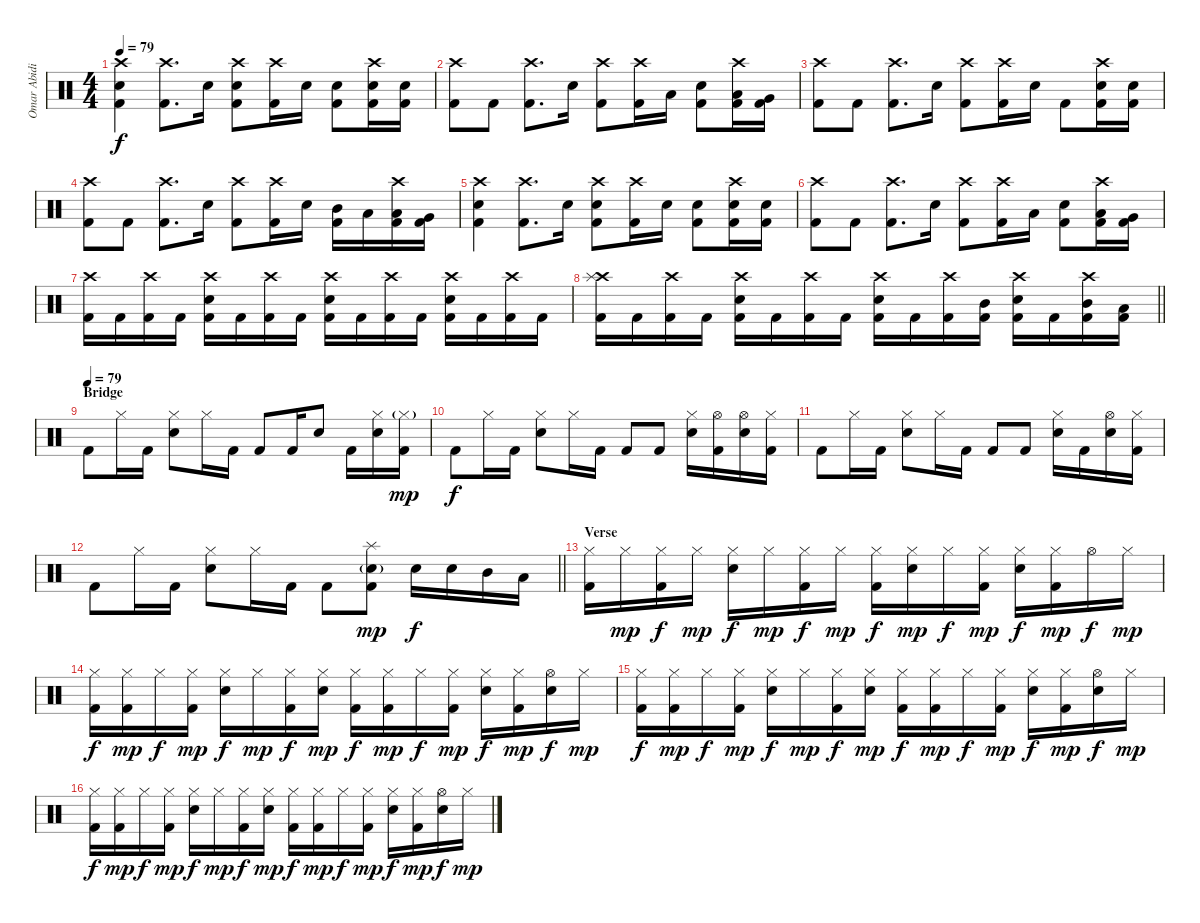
\track ("Omar Abidi" "Omar Abidi") {instrument percussion}
\staff {score}
\articulation defaults
\ts (4 4)
\tempo 79
\clef neutral
\ks c
("Crash high (hit)" "Electric Snare (hit)" "Kick (hit) 2").4{dy f} ("Crash high (hit)" "Kick (hit) 2").8{d} "Electric Snare (hit)".16 ("Crash high (hit)" "Electric Snare (hit)" "Kick (hit) 2").8 ("Crash high (hit)" "Kick (hit) 2").16 "Electric Snare (hit)".16 ("Electric Snare (hit)" "Kick (hit) 2").8 ("Crash high (hit)" "Electric Snare (hit)" "Kick (hit) 2").16 ("Electric Snare (hit)" "Kick (hit) 2").16 |
("Crash high (hit)" "Kick (hit) 2").8 "Kick (hit) 2".8 ("Crash high (hit)" "Kick (hit) 2").8{d} "Electric Snare (hit)".16 ("Crash high (hit)" "Kick (hit) 2").8 ("Crash high (hit)" "Kick (hit) 2").16 "Low Tom (hit)".16 ("Electric Snare (hit)" "Kick (hit) 2").8 ("Crash high (hit)" "Low Tom (hit)" "Kick (hit) 2").16 ("Very Low Tom (hit)" "Kick (hit) 2").16 |
("Crash high (hit)" "Kick (hit) 2").8 "Kick (hit) 2".8 ("Crash high (hit)" "Kick (hit) 2").8{d} "Electric Snare (hit)".16 ("Crash high (hit)" "Kick (hit) 2").8 ("Crash high (hit)" "Kick (hit) 2").16 "Electric Snare (hit)".16 "Kick (hit) 2".8 ("Crash high (hit)" "Electric Snare (hit)" "Kick (hit) 2").16 ("Electric Snare (hit)" "Kick (hit) 2").16 |
("Crash high (hit)" "Kick (hit) 2").8 "Kick (hit) 2".8 ("Crash high (hit)" "Kick (hit) 2").8{d} "Electric Snare (hit)".16 ("Crash high (hit)" "Kick (hit) 2").8 ("Crash high (hit)" "Kick (hit) 2").16 "Electric Snare (hit)".16 ("Mid Tom (hit)" "Kick (hit) 2").16 "Low Tom (hit)".16 ("Crash high (hit)" "Low Tom (hit)" "Kick (hit) 2").16 ("Very Low Tom (hit)" "Kick (hit) 2").16 |
("Crash high (hit)" "Electric Snare (hit)" "Kick (hit) 2").4 ("Crash high (hit)" "Kick (hit) 2").8{d} "Electric Snare (hit)".16 ("Crash high (hit)" "Electric Snare (hit)" "Kick (hit) 2").8 ("Crash high (hit)" "Kick (hit) 2").16 "Electric Snare (hit)".16 ("Electric Snare (hit)" "Kick (hit) 2").8 ("Crash high (hit)" "Electric Snare (hit)" "Kick (hit) 2").16 ("Electric Snare (hit)" "Kick (hit) 2").16 |
("Crash high (hit)" "Kick (hit) 2").8 "Kick (hit) 2".8 ("Crash high (hit)" "Kick (hit) 2").8{d} "Electric Snare (hit)".16 ("Crash high (hit)" "Kick (hit) 2").8 ("Crash high (hit)" "Kick (hit) 2").16 "Low Tom (hit)".16 ("Electric Snare (hit)" "Kick (hit) 2").8 ("Crash high (hit)" "Low Tom (hit)" "Kick (hit) 2").16 ("Very Low Tom (hit)" "Kick (hit) 2").16 |
("Crash high (hit)" "Kick (hit) 2").16 "Kick (hit) 2".16 ("Crash high (hit)" "Kick (hit) 2").16 "Kick (hit) 2".16 ("Crash high (hit)" "Electric Snare (hit)" "Kick (hit) 2").16 "Kick (hit) 2".16 ("Crash high (hit)" "Kick (hit) 2").16 "Kick (hit) 2".16 ("Crash high (hit)" "Electric Snare (hit)" "Kick (hit) 2").16 "Kick (hit) 2".16 ("Crash high (hit)" "Kick (hit) 2").16 "Kick (hit) 2".16 ("Crash high (hit)" "Electric Snare (hit)" "Kick (hit) 2").16 "Kick (hit) 2".16 ("Crash high (hit)" "Kick (hit) 2").16 "Kick (hit) 2".16 |
\barLineRight lightlight
("Crash high (hit)" "Splash (hit)" "Kick (hit) 2").16 "Kick (hit) 2".16 ("Crash high (hit)" "Kick (hit) 2").16 "Kick (hit) 2".16 ("Crash high (hit)" "Electric Snare (hit)" "Kick (hit) 2").16 "Kick (hit) 2".16 ("Crash high (hit)" "Kick (hit) 2").16 "Kick (hit) 2".16 ("Crash high (hit)" "Electric Snare (hit)" "Kick (hit) 2").16 "Kick (hit) 2".16 ("Crash high (hit)" "Kick (hit) 2").16 ("Mid Tom (hit)" "Kick (hit) 2").16 ("Crash high (hit)" "Electric Snare (hit)" "Kick (hit) 2").16 "Kick (hit) 2".16 ("Crash high (hit)" "Mid Tom (hit)" "Kick (hit) 2").16 ("Low Tom (hit)" "Kick (hit) 2").16 |
\section ("" "Bridge")
\tempo (79)
"Kick (hit) 2".8 "Hi-Hat (closed)".16 "Kick (hit) 2".16 ("Hi-Hat (closed)" "Electric Snare (hit)").8 "Hi-Hat (closed)".16 "Kick (hit) 2".16 "Kick (hit) 2".8 "Kick (hit) 2".16 "Electric Snare (hit)".8 "Kick (hit) 2".16 ("Hi-Hat (closed)" "Electric Snare (hit)").16 ("Hi-Hat (closed)"{g} "Kick (hit) 2").16{dy mp} |
"Kick (hit) 2".8{dy f} "Hi-Hat (closed)".16 "Kick (hit) 2".16 ("Hi-Hat (closed)" "Electric Snare (hit)").8 "Hi-Hat (closed)".16 "Kick (hit) 2".16 "Kick (hit) 2".8 "Kick (hit) 2".8 ("Hi-Hat (closed)" "Electric Snare (hit)").16 ("Hi-Hat (open)" "Kick (hit) 2").16 ("Hi-Hat (open)" "Electric Snare (hit)").16 ("Hi-Hat (closed)" "Kick (hit) 2").16 |
"Kick (hit) 2".8 "Hi-Hat (closed)".16 "Kick (hit) 2".16 ("Hi-Hat (closed)" "Electric Snare (hit)").8 "Hi-Hat (closed)".16 "Kick (hit) 2".16 "Kick (hit) 2".8 "Kick (hit) 2".8 ("Hi-Hat (closed)" "Electric Snare (hit)").16 "Kick (hit) 2".16 ("Hi-Hat (open)" "Electric Snare (hit)").16 ("Hi-Hat (closed)" "Kick (hit) 2").16 |
\barLineRight lightlight "Kick (hit) 2".8 "Hi-Hat (closed)".16 "Kick (hit) 2".16
("Hi-Hat (closed)" "Electric Snare (hit)").8 "Hi-Hat (closed)".16 "Kick (hit) 2".16 "Kick (hit) 2".8 ("Splash (hit)" "Electric Snare (hit)"{g} "Kick (hit) 2").8{dy mp} "Electric Snare (hit)".16{dy f} "Electric Snare (hit)".16 "Mid Tom (hit)".16 "Low Tom (hit)".16 |
\section ("" "Verse")
("Hi-Hat (closed)" "Kick (hit) 2").16 "Hi-Hat (closed)".16{dy mp} ("Hi-Hat (closed)" "Kick (hit) 2").16{dy f} "Hi-Hat (closed)".16{dy mp} ("Hi-Hat (closed)" "Electric Snare (hit)").16{dy f} "Hi-Hat (closed)".16{dy mp} ("Hi-Hat (closed)" "Kick (hit) 2").16{dy f} "Hi-Hat (closed)".16{dy mp} ("Hi-Hat (closed)" "Kick (hit) 2").16{dy f} ("Hi-Hat (closed)" "Electric Snare (hit)").16{dy mp} "Hi-Hat (closed)".16{dy f} ("Hi-Hat (closed)" "Kick (hit) 2").16{dy mp} ("Hi-Hat (closed)" "Electric Snare (hit)").16{dy f} ("Hi-Hat (closed)" "Kick (hit) 2").16{dy mp} "Hi-Hat (open)".16{dy f} "Hi-Hat (closed)".16{dy mp} |
("Hi-Hat (closed)" "Kick (hit) 2").16{dy f} ("Hi-Hat (closed)" "Kick (hit) 2").16{dy mp} "Hi-Hat (closed)".16{dy f} ("Hi-Hat (closed)" "Kick (hit) 2").16{dy mp} ("Hi-Hat (closed)" "Electric Snare (hit)").16{dy f} "Hi-Hat (closed)".16{dy mp} ("Hi-Hat (closed)" "Kick (hit) 2").16{dy f} ("Hi-Hat (closed)" "Electric Snare (hit)").16{dy mp} ("Hi-Hat (closed)" "Kick (hit) 2").16{dy f} ("Hi-Hat (closed)" "Kick (hit) 2").16{dy mp} "Hi-Hat (closed)".16{dy f} ("Hi-Hat (closed)" "Kick (hit) 2").16{dy mp} ("Hi-Hat (closed)" "Electric Snare (hit)").16{dy f} ("Hi-Hat (closed)" "Kick (hit) 2").16{dy mp} ("Hi-Hat (open)" "Electric Snare (hit)").16{dy f} "Hi-Hat (closed)".16{dy mp} |
("Hi-Hat (closed)" "Kick (hit) 2").16{dy f} ("Hi-Hat (closed)" "Kick (hit) 2").16{dy mp} "Hi-Hat (closed)".16{dy f} ("Hi-Hat (closed)" "Kick (hit) 2").16{dy mp} ("Hi-Hat (closed)" "Electric Snare (hit)").16{dy f} "Hi-Hat (closed)".16{dy mp} ("Hi-Hat (closed)" "Kick (hit) 2").16{dy f} ("Hi-Hat (closed)" "Electric Snare (hit)").16{dy mp} ("Hi-Hat (closed)" "Kick (hit) 2").16{dy f} ("Hi-Hat (closed)" "Kick (hit) 2").16{dy mp} "Hi-Hat (closed)".16{dy f} ("Hi-Hat (closed)" "Kick (hit) 2").16{dy mp} ("Hi-Hat (closed)" "Electric Snare (hit)").16{dy f} ("Hi-Hat (closed)" "Kick (hit) 2").16{dy mp} ("Hi-Hat (open)" "Electric Snare (hit)").16{dy f} "Hi-Hat (closed)".16{dy mp} |
("Hi-Hat (closed)" "Kick (hit) 2").16{dy f} ("Hi-Hat (closed)" "Kick (hit) 2").16{dy mp} "Hi-Hat (closed)".16{dy f} ("Hi-Hat (closed)" "Kick (hit) 2").16{dy mp} ("Hi-Hat (closed)" "Electric Snare (hit)").16{dy f} "Hi-Hat (closed)".16{dy mp} ("Hi-Hat (closed)" "Kick (hit) 2").16{dy f} ("Hi-Hat (closed)" "Electric Snare (hit)").16{dy mp} ("Hi-Hat (closed)" "Kick (hit) 2").16{dy f} ("Hi-Hat (closed)" "Kick (hit) 2").16{dy mp} "Hi-Hat (closed)".16{dy f} ("Hi-Hat (closed)" "Kick (hit) 2").16{dy mp} ("Hi-Hat (closed)" "Electric Snare (hit)").16{dy f} ("Hi-Hat (closed)" "Kick (hit) 2").16{dy mp} ("Hi-Hat (open)" "Electric Snare (hit)").16{dy f} "Hi-Hat (closed)".16{dy mp}
